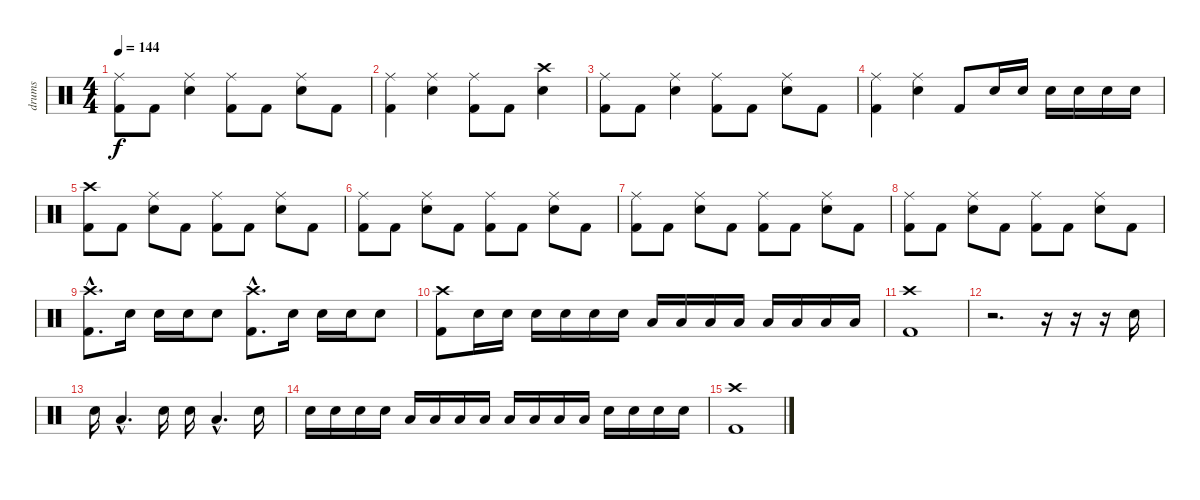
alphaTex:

\track ("drums" "drums") {instrument percussion}
\staff {score}
\articulation defaults
\ts (4 4)
\tempo 144
\clef neutral
\ks c
("Ride (middle)" "Kick (hit) 2").8{dy f} "Kick (hit) 2".8 ("Ride (middle)" "Electric Snare (hit)").4 ("Ride (middle)" "Kick (hit) 2").8 "Kick (hit) 2".8 ("Ride (middle)" "Electric Snare (hit)").8 "Kick (hit) 2".8 |
("Ride (middle)" "Kick (hit) 2").4 ("Ride (middle)" "Electric Snare (hit)").4 ("Ride (middle)" "Kick (hit) 2").8 "Kick (hit) 2".8 ("Crash high (hit)" "Electric Snare (hit)").4 |
("Ride (middle)" "Kick (hit) 2").8 "Kick (hit) 2".8 ("Ride (middle)" "Electric Snare (hit)").4 ("Ride (middle)" "Kick (hit) 2").8 "Kick (hit) 2".8 ("Ride (middle)" "Electric Snare (hit)").8 "Kick (hit) 2".8 |
("Ride (middle)" "Kick (hit) 2").4 ("Ride (middle)" "Electric Snare (hit)").4 "Kick (hit) 2".8 "Electric Snare (hit)".16 "Electric Snare (hit)".16 "Electric Snare (hit)".16 "Electric Snare (hit)".16 "Electric Snare (hit)".16 "Electric Snare (hit)".16 |
("Crash high (hit)" "Kick (hit) 2").8 "Kick (hit) 2".8 ("Ride (middle)" "Electric Snare (hit)").8 "Kick (hit) 2".8 ("Ride (middle)" "Kick (hit) 2").8 "Kick (hit) 2".8 ("Ride (middle)" "Electric Snare (hit)").8 "Kick (hit) 2".8 |
("Ride (middle)" "Kick (hit) 2").8 "Kick (hit) 2".8 ("Ride (middle)" "Electric Snare (hit)").8 "Kick (hit) 2".8 ("Ride (middle)" "Kick (hit) 2").8 "Kick (hit) 2".8 ("Ride (middle)" "Electric Snare (hit)").8 "Kick (hit) 2".8 |
("Ride (middle)" "Kick (hit) 2").8 "Kick (hit) 2".8 ("Ride (middle)" "Electric Snare (hit)").8 "Kick (hit) 2".8 ("Ride (middle)" "Kick (hit) 2").8 "Kick (hit) 2".8 ("Ride (middle)" "Electric Snare (hit)").8 "Kick (hit) 2".8 |
("Ride (middle)" "Kick (hit) 2").8 "Kick (hit) 2".8 ("Ride (middle)" "Electric Snare (hit)").8 "Kick (hit) 2".8 ("Ride (middle)" "Kick (hit) 2").8 "Kick (hit) 2".8 ("Ride (middle)" "Electric Snare (hit)").8 "Kick (hit) 2".8 |
("Crash high (hit)"{hac} "Kick (hit) 2"{hac}).8{d} "Electric Snare (hit)".16 "Electric Snare (hit)".16 "Electric Snare (hit)".16 "Electric Snare (hit)".8 ("Crash high (hit)"{hac} "Kick (hit) 2"{hac}).8{d} "Electric Snare (hit)".16 "Electric Snare (hit)".16 "Electric Snare (hit)".16 "Electric Snare (hit)".8 |
("Crash high (hit)" "Kick (hit) 2").8 "Electric Snare (hit)".16 "Electric Snare (hit)".16 "Electric Snare (hit)".16 "Electric Snare (hit)".16 "Electric Snare (hit)".16 "Electric Snare (hit)".16 "Low Tom (hit)".16 "Low Tom (hit)".16 "Low Tom (hit)".16 "Low Tom (hit)".16 "Low Floor Tom (hit)".16 "Low Floor Tom (hit)".16 "Low Floor Tom (hit)".16 "Low Floor Tom (hit)".16 |
("Crash high (hit)" "Kick (hit) 2").1 |
r.2{d} r.16 r.16 r.16 "Electric Snare (hit)".16 |
"Electric Snare (hit)".16 "Low Tom (hit)"{hac}.4{d} "Electric Snare (hit)".16 "Electric Snare (hit)".16 "Low Tom (hit)"{hac}.4{d} "Electric Snare (hit)".16 |
"Electric Snare (hit)".16 "Electric Snare (hit)".16 "Electric Snare (hit)".16 "Electric Snare (hit)".16 "Low Tom (hit)".16 "Low Tom (hit)".16 "Low Tom (hit)".16 "Low Tom (hit)".16 "Low Floor Tom (hit)".16 "Low Floor Tom (hit)".16 "Low Floor Tom (hit)".16 "Low Floor Tom (hit)".16 "Electric Snare (hit)".16 "Electric Snare (hit)".16 "Electric Snare (hit)".16 "Electric Snare (hit)".16 |
("Crash high (hit)" "Kick (hit) 2").1
